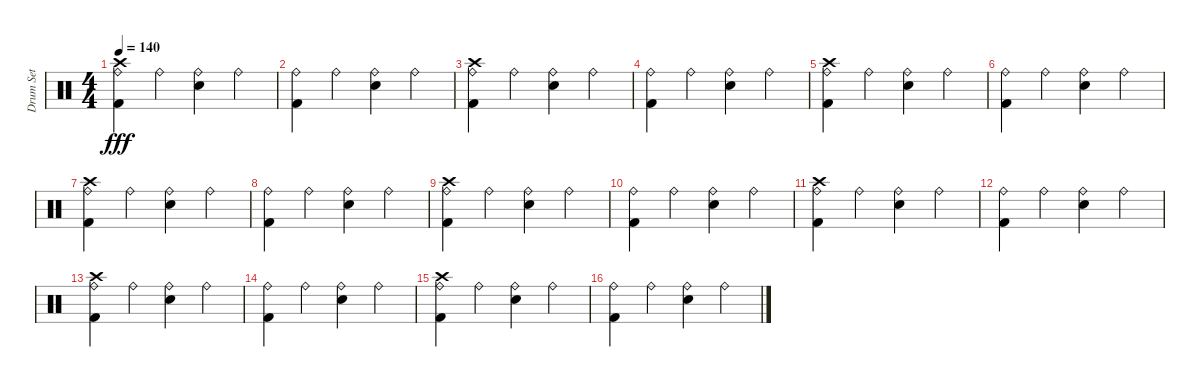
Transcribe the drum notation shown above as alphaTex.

\track ("Drum Set" "Drum Set") {instrument percussion}
\staff {score}
\articulation defaults
\ts (4 4)
\tempo 140
\clef neutral
\ks c
("Kick (hit) 2" "Crash high (hit)" "Ride (bell)").4{dy fff} "Ride (bell)".4 ("Electric Snare (hit)" "Ride (bell)").4 "Ride (bell)".4 |
("Kick (hit) 2" "Ride (bell)").4 "Ride (bell)".4 ("Electric Snare (hit)" "Ride (bell)").4 "Ride (bell)".4 |
("Kick (hit) 2" "Crash high (hit)" "Ride (bell)").4 "Ride (bell)".4 ("Electric Snare (hit)" "Ride (bell)").4 "Ride (bell)".4 |
("Kick (hit) 2" "Ride (bell)").4 "Ride (bell)".4 ("Electric Snare (hit)" "Ride (bell)").4 "Ride (bell)".4 |
("Kick (hit) 2" "Ride (bell)" "Crash high (hit)").4 "Ride (bell)".4 ("Electric Snare (hit)" "Ride (bell)").4 "Ride (bell)".4 |
("Kick (hit) 2" "Ride (bell)").4 "Ride (bell)".4 ("Electric Snare (hit)" "Ride (bell)").4 "Ride (bell)".4 |
("Kick (hit) 2" "Crash high (hit)" "Ride (bell)").4 "Ride (bell)".4 ("Electric Snare (hit)" "Ride (bell)").4 "Ride (bell)".4 |
("Kick (hit) 2" "Ride (bell)").4 "Ride (bell)".4 ("Electric Snare (hit)" "Ride (bell)").4 "Ride (bell)".4 |
("Kick (hit) 2" "Ride (bell)" "Crash high (hit)").4 "Ride (bell)".4 ("Electric Snare (hit)" "Ride (bell)").4 "Ride (bell)".4 |
("Kick (hit) 2" "Ride (bell)").4 "Ride (bell)".4 ("Electric Snare (hit)" "Ride (bell)").4 "Ride (bell)".4 |
("Kick (hit) 2" "Ride (bell)" "Crash high (hit)").4 "Ride (bell)".4 ("Electric Snare (hit)" "Ride (bell)").4 "Ride (bell)".4 |
("Kick (hit) 2" "Ride (bell)").4 "Ride (bell)".4 ("Electric Snare (hit)" "Ride (bell)").4 "Ride (bell)".4 |
("Kick (hit) 2" "Ride (bell)" "Crash high (hit)").4 "Ride (bell)".4 ("Electric Snare (hit)" "Ride (bell)").4 "Ride (bell)".4 |
("Kick (hit) 2" "Ride (bell)").4 "Ride (bell)".4 ("Electric Snare (hit)" "Ride (bell)").4 "Ride (bell)".4 |
("Kick (hit) 2" "Crash high (hit)" "Ride (bell)").4 "Ride (bell)".4 ("Electric Snare (hit)" "Ride (bell)").4 "Ride (bell)".4 |
("Kick (hit) 2" "Ride (bell)").4 "Ride (bell)".4 ("Electric Snare (hit)" "Ride (bell)").4 "Ride (bell)".4
